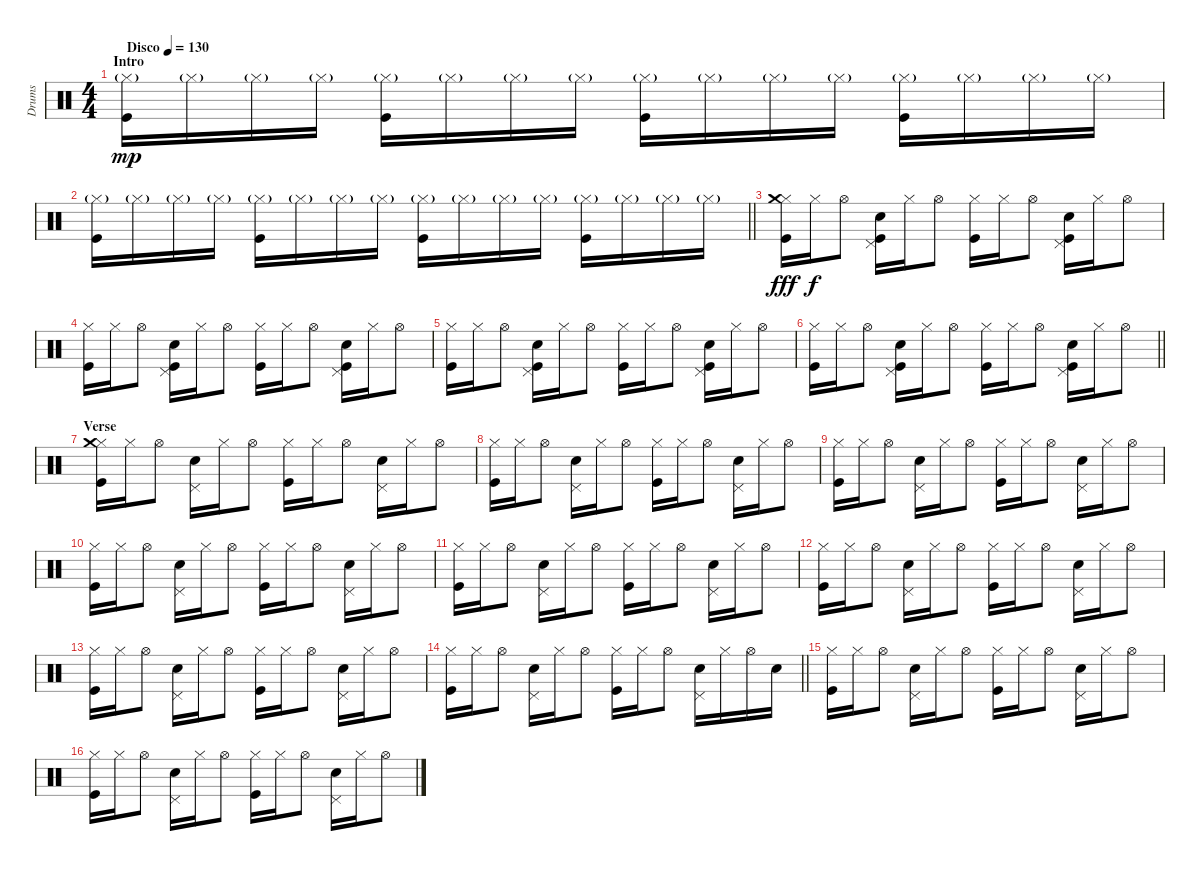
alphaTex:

\track ("Drums" "Drums") {instrument percussion}
\staff {score}
\articulation defaults
\ts (4 4)
\section ("" "Intro")
\tempo (130 "Disco")
\clef neutral
\ks c
("Hi-Hat (closed)"{g} "Kick (hit)").16{dy mp} "Hi-Hat (closed)"{g}.16 "Hi-Hat (closed)"{g}.16 "Hi-Hat (closed)"{g}.16 ("Hi-Hat (closed)"{g} "Kick (hit)").16 "Hi-Hat (closed)"{g}.16 "Hi-Hat (closed)"{g}.16 "Hi-Hat (closed)"{g}.16 ("Hi-Hat (closed)"{g} "Kick (hit)").16 "Hi-Hat (closed)"{g}.16 "Hi-Hat (closed)"{g}.16 "Hi-Hat (closed)"{g}.16 ("Hi-Hat (closed)"{g} "Kick (hit)").16 "Hi-Hat (closed)"{g}.16 "Hi-Hat (closed)"{g}.16 "Hi-Hat (closed)"{g}.16 |
\barLineRight lightlight
("Hi-Hat (closed)"{g} "Kick (hit)").16 "Hi-Hat (closed)"{g}.16 "Hi-Hat (closed)"{g}.16 "Hi-Hat (closed)"{g}.16 ("Hi-Hat (closed)"{g} "Kick (hit)").16 "Hi-Hat (closed)"{g}.16 "Hi-Hat (closed)"{g}.16 "Hi-Hat (closed)"{g}.16 ("Hi-Hat (closed)"{g} "Kick (hit)").16 "Hi-Hat (closed)"{g}.16 "Hi-Hat (closed)"{g}.16 "Hi-Hat (closed)"{g}.16 ("Hi-Hat (closed)"{g} "Kick (hit)").16 "Hi-Hat (closed)"{g}.16 "Hi-Hat (closed)"{g}.16 "Hi-Hat (closed)"{g}.16 |
("Hi-Hat (closed)" "Crash medium (hit)" "Kick (hit)").16{dy fff} "Hi-Hat (closed)".16{dy f} "Hi-Hat (open)".8 ("Pedal Hi-Hat (hit)" "Electric Snare (hit)" "Kick (hit)").16 "Hi-Hat (closed)".16 "Hi-Hat (open)".8 ("Hi-Hat (closed)" "Kick (hit)").16 "Hi-Hat (closed)".16 "Hi-Hat (open)".8 ("Pedal Hi-Hat (hit)" "Electric Snare (hit)" "Kick (hit)").16 "Hi-Hat (closed)".16 "Hi-Hat (open)".8 |
("Hi-Hat (closed)" "Kick (hit)").16 "Hi-Hat (closed)".16 "Hi-Hat (open)".8 ("Pedal Hi-Hat (hit)" "Electric Snare (hit)" "Kick (hit)").16 "Hi-Hat (closed)".16 "Hi-Hat (open)".8 ("Hi-Hat (closed)" "Kick (hit)").16 "Hi-Hat (closed)".16 "Hi-Hat (open)".8 ("Pedal Hi-Hat (hit)" "Electric Snare (hit)" "Kick (hit)").16 "Hi-Hat (closed)".16 "Hi-Hat (open)".8 |
("Hi-Hat (closed)" "Kick (hit)").16 "Hi-Hat (closed)".16 "Hi-Hat (open)".8 ("Pedal Hi-Hat (hit)" "Electric Snare (hit)" "Kick (hit)").16 "Hi-Hat (closed)".16 "Hi-Hat (open)".8 ("Hi-Hat (closed)" "Kick (hit)").16 "Hi-Hat (closed)".16 "Hi-Hat (open)".8 ("Pedal Hi-Hat (hit)" "Electric Snare (hit)" "Kick (hit)").16 "Hi-Hat (closed)".16 "Hi-Hat (open)".8 |
\barLineRight lightlight
("Hi-Hat (closed)" "Kick (hit)").16 "Hi-Hat (closed)".16 "Hi-Hat (open)".8 ("Pedal Hi-Hat (hit)" "Electric Snare (hit)" "Kick (hit)").16 "Hi-Hat (closed)".16 "Hi-Hat (open)".8 ("Hi-Hat (closed)" "Kick (hit)").16 "Hi-Hat (closed)".16 "Hi-Hat (open)".8 ("Pedal Hi-Hat (hit)" "Electric Snare (hit)" "Kick (hit)").16 "Hi-Hat (closed)".16 "Hi-Hat (open)".8 |
\section ("" "Verse")
("Hi-Hat (closed)" "Crash medium (hit)" "Kick (hit)").16 "Hi-Hat (closed)".16 "Hi-Hat (open)".8 ("Pedal Hi-Hat (hit)" "Electric Snare (hit)").16 "Hi-Hat (closed)".16 "Hi-Hat (open)".8 ("Hi-Hat (closed)" "Kick (hit)").16 "Hi-Hat (closed)".16 "Hi-Hat (open)".8 ("Pedal Hi-Hat (hit)" "Electric Snare (hit)").16 "Hi-Hat (closed)".16 "Hi-Hat (open)".8 |
("Hi-Hat (closed)" "Kick (hit)").16 "Hi-Hat (closed)".16 "Hi-Hat (open)".8 ("Pedal Hi-Hat (hit)" "Electric Snare (hit)").16 "Hi-Hat (closed)".16 "Hi-Hat (open)".8 ("Hi-Hat (closed)" "Kick (hit)").16 "Hi-Hat (closed)".16 "Hi-Hat (open)".8 ("Pedal Hi-Hat (hit)" "Electric Snare (hit)").16 "Hi-Hat (closed)".16 "Hi-Hat (open)".8 |
("Hi-Hat (closed)" "Kick (hit)").16 "Hi-Hat (closed)".16 "Hi-Hat (open)".8 ("Pedal Hi-Hat (hit)" "Electric Snare (hit)").16 "Hi-Hat (closed)".16 "Hi-Hat (open)".8 ("Hi-Hat (closed)" "Kick (hit)").16 "Hi-Hat (closed)".16 "Hi-Hat (open)".8 ("Pedal Hi-Hat (hit)" "Electric Snare (hit)").16 "Hi-Hat (closed)".16 "Hi-Hat (open)".8 |
("Hi-Hat (closed)" "Kick (hit)").16 "Hi-Hat (closed)".16 "Hi-Hat (open)".8 ("Pedal Hi-Hat (hit)" "Electric Snare (hit)").16 "Hi-Hat (closed)".16 "Hi-Hat (open)".8 ("Hi-Hat (closed)" "Kick (hit)").16 "Hi-Hat (closed)".16 "Hi-Hat (open)".8 ("Pedal Hi-Hat (hit)" "Electric Snare (hit)").16 "Hi-Hat (closed)".16 "Hi-Hat (open)".8 |
("Hi-Hat (closed)" "Kick (hit)").16 "Hi-Hat (closed)".16 "Hi-Hat (open)".8 ("Pedal Hi-Hat (hit)" "Electric Snare (hit)").16 "Hi-Hat (closed)".16 "Hi-Hat (open)".8 ("Hi-Hat (closed)" "Kick (hit)").16 "Hi-Hat (closed)".16 "Hi-Hat (open)".8 ("Pedal Hi-Hat (hit)" "Electric Snare (hit)").16 "Hi-Hat (closed)".16 "Hi-Hat (open)".8 |
("Hi-Hat (closed)" "Kick (hit)").16 "Hi-Hat (closed)".16 "Hi-Hat (open)".8 ("Pedal Hi-Hat (hit)" "Electric Snare (hit)").16 "Hi-Hat (closed)".16 "Hi-Hat (open)".8 ("Hi-Hat (closed)" "Kick (hit)").16 "Hi-Hat (closed)".16 "Hi-Hat (open)".8 ("Pedal Hi-Hat (hit)" "Electric Snare (hit)").16 "Hi-Hat (closed)".16 "Hi-Hat (open)".8 |
("Hi-Hat (closed)" "Kick (hit)").16 "Hi-Hat (closed)".16 "Hi-Hat (open)".8 ("Pedal Hi-Hat (hit)" "Electric Snare (hit)").16 "Hi-Hat (closed)".16 "Hi-Hat (open)".8 ("Hi-Hat (closed)" "Kick (hit)").16 "Hi-Hat (closed)".16 "Hi-Hat (open)".8 ("Pedal Hi-Hat (hit)" "Electric Snare (hit)").16 "Hi-Hat (closed)".16 "Hi-Hat (open)".8 |
\barLineRight lightlight
("Hi-Hat (closed)" "Kick (hit)").16 "Hi-Hat (closed)".16 "Hi-Hat (open)".8 ("Pedal Hi-Hat (hit)" "Electric Snare (hit)").16 "Hi-Hat (closed)".16 "Hi-Hat (open)".8 ("Hi-Hat (closed)" "Kick (hit)").16 "Hi-Hat (closed)".16 "Hi-Hat (open)".8 ("Pedal Hi-Hat (hit)" "Electric Snare (hit)").16 "Hi-Hat (closed)".16 "Hi-Hat (open)".16 "Electric Snare (hit)".16 |
("Hi-Hat (closed)" "Kick (hit)").16 "Hi-Hat (closed)".16 "Hi-Hat (open)".8 ("Pedal Hi-Hat (hit)" "Electric Snare (hit)").16 "Hi-Hat (closed)".16 "Hi-Hat (open)".8 ("Hi-Hat (closed)" "Kick (hit)").16 "Hi-Hat (closed)".16 "Hi-Hat (open)".8 ("Pedal Hi-Hat (hit)" "Electric Snare (hit)").16 "Hi-Hat (closed)".16 "Hi-Hat (open)".8 |
("Hi-Hat (closed)" "Kick (hit)").16 "Hi-Hat (closed)".16 "Hi-Hat (open)".8 ("Pedal Hi-Hat (hit)" "Electric Snare (hit)").16 "Hi-Hat (closed)".16 "Hi-Hat (open)".8 ("Hi-Hat (closed)" "Kick (hit)").16 "Hi-Hat (closed)".16 "Hi-Hat (open)".8 ("Pedal Hi-Hat (hit)" "Electric Snare (hit)").16 "Hi-Hat (closed)".16 "Hi-Hat (open)".8
